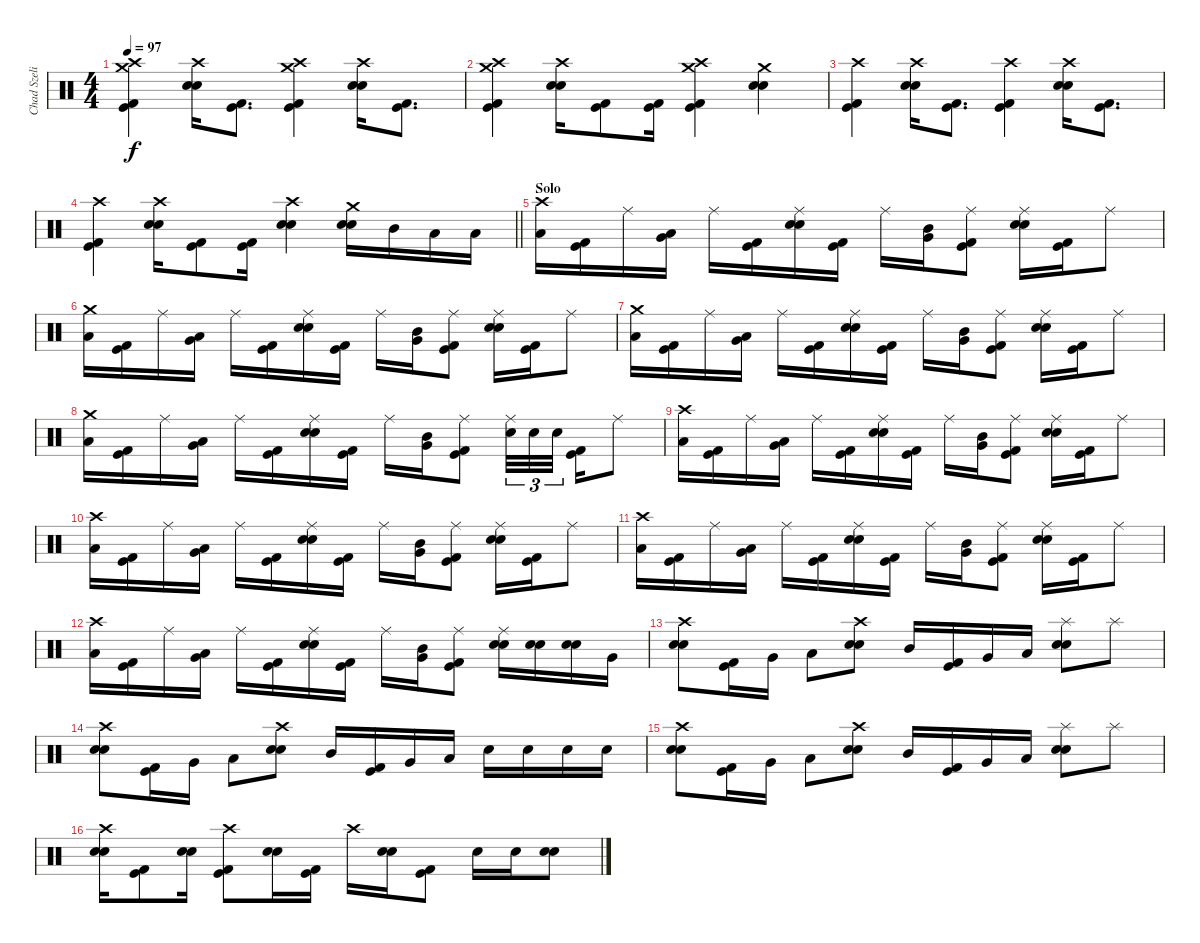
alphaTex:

\track ("Chad Szeliga" "Chad Szeli") {instrument percussion}
\staff {score}
\articulation defaults
\ts (4 4)
\tempo 97
\clef neutral
\ks c
("Crash high (hit)" "Kick (hit) 2" "Kick (hit)" "Crash medium (hit)").4{dy f} ("Crash high (hit)" "Snare (hit) 2" "Snare (hit) 2").16 ("Kick (hit) 2" "Kick (hit)").8{d} ("Crash high (hit)" "Kick (hit) 2" "Kick (hit)" "Crash medium (hit)").4 ("Crash high (hit)" "Snare (hit) 2" "Snare (hit) 2").16 ("Kick (hit) 2" "Kick (hit)").8{d} |
("Crash high (hit)" "Kick (hit) 2" "Kick (hit)" "Crash medium (hit)").4 ("Crash high (hit)" "Snare (hit) 2" "Snare (hit) 2").16 ("Kick (hit) 2" "Kick (hit)").8 ("Kick (hit) 2" "Kick (hit)").16 ("Crash high (hit)" "Kick (hit) 2" "Kick (hit)" "Crash medium (hit)").4 ("Crash medium (hit)" "Snare (hit) 2" "Snare (hit) 2").4 |
("Crash high (hit)" "Kick (hit) 2" "Kick (hit)").4 ("Crash high (hit)" "Snare (hit) 2" "Snare (hit) 2").16 ("Kick (hit) 2" "Kick (hit)").8{d} ("Crash high (hit)" "Kick (hit) 2" "Kick (hit)").4 ("Crash high (hit)" "Snare (hit) 2" "Snare (hit) 2").16 ("Kick (hit) 2" "Kick (hit)").8{d} |
\barLineRight lightlight
("Crash high (hit)" "Kick (hit) 2" "Kick (hit)").4 ("Crash high (hit)" "Snare (hit) 2" "Snare (hit) 2").16 ("Kick (hit) 2" "Kick (hit)").8 ("Kick (hit) 2" "Kick (hit)").16 ("Crash high (hit)" "Snare (hit) 2" "Snare (hit) 2").4 ("Crash medium (hit)" "Snare (hit) 2" "Snare (hit) 2").16 "Mid Tom (hit)".16 "Low Tom (hit)".16 "Low Tom (hit)".16 |
\section ("" "Solo")
("Crash high (hit)" "Low Tom (hit)").16 ("Kick (hit) 2" "Kick (hit)").16 "Ride (middle)".16 ("Very Low Tom (hit)" "Low Tom (hit)").16 "Ride (middle)".16 ("Kick (hit) 2" "Kick (hit)").16 ("Ride (middle)" "Snare (hit) 2" "Snare (hit) 2").16 ("Kick (hit) 2" "Kick (hit)").16 "Ride (middle)".16 ("Mid Tom (hit)" "Very Low Tom (hit)").16 ("Ride (middle)" "Kick (hit) 2" "Kick (hit)").8 ("Ride (middle)" "Snare (hit) 2" "Snare (hit) 2").16 ("Kick (hit) 2" "Kick (hit)").16 "Ride (middle)".8 |
("Crash medium (hit)" "Low Tom (hit)").16 ("Kick (hit) 2" "Kick (hit)").16 "Ride (middle)".16 ("Very Low Tom (hit)" "Low Tom (hit)").16 "Ride (middle)".16 ("Kick (hit) 2" "Kick (hit)").16 ("Ride (middle)" "Snare (hit) 2" "Snare (hit) 2").16 ("Kick (hit) 2" "Kick (hit)").16 "Ride (middle)".16 ("Mid Tom (hit)" "Very Low Tom (hit)").16 ("Ride (middle)" "Kick (hit) 2" "Kick (hit)").8 ("Ride (middle)" "Snare (hit) 2" "Snare (hit) 2").16 ("Kick (hit) 2" "Kick (hit)").16 "Ride (middle)".8 |
("Crash medium (hit)" "Low Tom (hit)").16 ("Kick (hit) 2" "Kick (hit)").16 "Ride (middle)".16 ("Very Low Tom (hit)" "Low Tom (hit)").16 "Ride (middle)".16 ("Kick (hit) 2" "Kick (hit)").16 ("Ride (middle)" "Snare (hit) 2" "Snare (hit) 2").16 ("Kick (hit) 2" "Kick (hit)").16 "Ride (middle)".16 ("Mid Tom (hit)" "Very Low Tom (hit)").16 ("Ride (middle)" "Kick (hit) 2" "Kick (hit)").8 ("Ride (middle)" "Snare (hit) 2" "Snare (hit) 2").16 ("Kick (hit) 2" "Kick (hit)").16 "Ride (middle)".8 |
("Crash medium (hit)" "Low Tom (hit)").16 ("Kick (hit) 2" "Kick (hit)").16 "Ride (middle)".16 ("Very Low Tom (hit)" "Low Tom (hit)").16 "Ride (middle)".16 ("Kick (hit) 2" "Kick (hit)").16 ("Ride (middle)" "Snare (hit) 2" "Snare (hit) 2").16 ("Kick (hit) 2" "Kick (hit)").16 "Ride (middle)".16 ("Mid Tom (hit)" "Very Low Tom (hit)").16 ("Ride (middle)" "Kick (hit) 2" "Kick (hit)").8 ("Ride (middle)" "Snare (hit) 2").32{tu (3 2)} "Snare (hit) 2".32{tu (3 2)} "Snare (hit) 2".32{tu (3 2) beam splitsecondary} ("Kick (hit) 2" "Kick (hit)").16 "Ride (middle)".8 |
("Crash high (hit)" "Low Tom (hit)").16 ("Kick (hit) 2" "Kick (hit)").16 "Ride (middle)".16 ("Very Low Tom (hit)" "Low Tom (hit)").16 "Ride (middle)".16 ("Kick (hit) 2" "Kick (hit)").16 ("Ride (middle)" "Snare (hit) 2" "Snare (hit) 2").16 ("Kick (hit) 2" "Kick (hit)").16 "Ride (middle)".16 ("Mid Tom (hit)" "Very Low Tom (hit)").16 ("Ride (middle)" "Kick (hit) 2" "Kick (hit)").8 ("Ride (middle)" "Snare (hit) 2" "Snare (hit) 2").16 ("Kick (hit) 2" "Kick (hit)").16 "Ride (middle)".8 |
("Crash high (hit)" "Low Tom (hit)").16 ("Kick (hit) 2" "Kick (hit)").16 "Ride (middle)".16 ("Very Low Tom (hit)" "Low Tom (hit)").16 "Ride (middle)".16 ("Kick (hit) 2" "Kick (hit)").16 ("Ride (middle)" "Snare (hit) 2" "Snare (hit) 2").16 ("Kick (hit) 2" "Kick (hit)").16 "Ride (middle)".16 ("Mid Tom (hit)" "Very Low Tom (hit)").16 ("Ride (middle)" "Kick (hit) 2" "Kick (hit)").8 ("Ride (middle)" "Snare (hit) 2" "Snare (hit) 2").16 ("Kick (hit) 2" "Kick (hit)").16 "Ride (middle)".8 |
("Crash high (hit)" "Low Tom (hit)").16 ("Kick (hit) 2" "Kick (hit)").16 "Ride (middle)".16 ("Very Low Tom (hit)" "Low Tom (hit)").16 "Ride (middle)".16 ("Kick (hit) 2" "Kick (hit)").16 ("Ride (middle)" "Snare (hit) 2" "Snare (hit) 2").16 ("Kick (hit) 2" "Kick (hit)").16 "Ride (middle)".16 ("Mid Tom (hit)" "Very Low Tom (hit)").16 ("Ride (middle)" "Kick (hit) 2" "Kick (hit)").8 ("Ride (middle)" "Snare (hit) 2" "Snare (hit) 2").16 ("Kick (hit) 2" "Kick (hit)").16 "Ride (middle)".8 |
("Crash high (hit)" "Low Tom (hit)").16 ("Kick (hit) 2" "Kick (hit)").16 "Ride (middle)".16 ("Very Low Tom (hit)" "Low Tom (hit)").16 "Ride (middle)".16 ("Kick (hit) 2" "Kick (hit)").16 ("Ride (middle)" "Snare (hit) 2" "Snare (hit) 2").16 ("Kick (hit) 2" "Kick (hit)").16 "Ride (middle)".16 ("Mid Tom (hit)" "Very Low Tom (hit)").16 ("Ride (middle)" "Kick (hit) 2" "Kick (hit)").8 ("Ride (middle)" "Snare (hit) 2" "Snare (hit) 2").16 ("Snare (hit) 2" "Snare (hit) 2").16 ("Snare (hit) 2" "Snare (hit) 2").16 "Very Low Tom (hit)".16 |
("Crash high (hit)" "Snare (hit) 2" "Snare (hit) 2").8 ("Kick (hit) 2" "Kick (hit)").16 "Very Low Tom (hit)".16 "Low Tom (hit)".8 ("Crash high (hit)" "Snare (hit) 2" "Snare (hit) 2").8 "Mid Tom (hit)".16 ("Kick (hit) 2" "Kick (hit)").16 "Very Low Tom (hit)".16 "Low Tom (hit)".16 ("Splash (hit)" "Snare (hit) 2" "Snare (hit) 2").8 "Splash (hit)".8 |
("Crash high (hit)" "Snare (hit) 2" "Snare (hit) 2").8 ("Kick (hit) 2" "Kick (hit)").16 "Very Low Tom (hit)".16 "Low Tom (hit)".8 ("Crash high (hit)" "Snare (hit) 2" "Snare (hit) 2").8 "Mid Tom (hit)".16 ("Kick (hit) 2" "Kick (hit)").16 "Very Low Tom (hit)".16 "Low Tom (hit)".16 "Snare (hit) 2".16 "Snare (hit) 2".16 "Snare (hit) 2".16 "Snare (hit) 2".16 |
("Crash high (hit)" "Snare (hit) 2" "Snare (hit) 2").8 ("Kick (hit) 2" "Kick (hit)").16 "Very Low Tom (hit)".16 "Low Tom (hit)".8 ("Crash high (hit)" "Snare (hit) 2" "Snare (hit) 2").8 "Mid Tom (hit)".16 ("Kick (hit) 2" "Kick (hit)").16 "Very Low Tom (hit)".16 "Low Tom (hit)".16 ("Splash (hit)" "Snare (hit) 2" "Snare (hit) 2").8 "Splash (hit)".8 |
("Crash high (hit)" "Snare (hit) 2" "Snare (hit) 2").16 ("Kick (hit) 2" "Kick (hit)").8 ("Snare (hit) 2" "Snare (hit) 2").16 ("Crash high (hit)" "Kick (hit) 2" "Kick (hit)").8 ("Snare (hit) 2" "Snare (hit) 2").16 ("Kick (hit) 2" "Kick (hit)").16 "Crash high (hit)".16 ("Snare (hit) 2" "Snare (hit) 2").16 ("Kick (hit) 2" "Kick (hit)").8 "Snare (hit) 2".16 "Snare (hit) 2".16 ("Snare (hit) 2" "Snare (hit) 2").8
